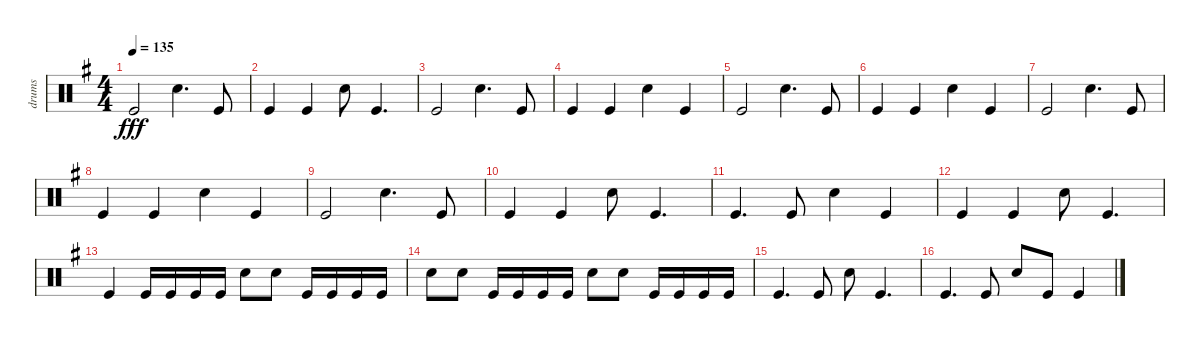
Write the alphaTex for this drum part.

\track ("drums" "drums") {instrument percussion}
\staff {score}
\articulation defaults
\ts (4 4)
\tempo 135
\clef neutral
\ks eminor "Kick (hit)".2{dy fff} "Electric Snare (hit)".4{d} "Kick (hit)".8
|
"Kick (hit)".4 "Kick (hit)".4 "Electric Snare (hit)".8 "Kick (hit)".4{d} |
"Kick (hit)".2 "Electric Snare (hit)".4{d} "Kick (hit)".8 |
"Kick (hit)".4 "Kick (hit)".4 "Electric Snare (hit)".4 "Kick (hit)".4 |
"Kick (hit)".2 "Electric Snare (hit)".4{d} "Kick (hit)".8 |
"Kick (hit)".4 "Kick (hit)".4 "Electric Snare (hit)".4 "Kick (hit)".4 |
"Kick (hit)".2 "Electric Snare (hit)".4{d} "Kick (hit)".8 |
"Kick (hit)".4 "Kick (hit)".4 "Electric Snare (hit)".4 "Kick (hit)".4 |
"Kick (hit)".2 "Electric Snare (hit)".4{d} "Kick (hit)".8 |
"Kick (hit)".4 "Kick (hit)".4 "Electric Snare (hit)".8 "Kick (hit)".4{d} |
"Kick (hit)".4{d} "Kick (hit)".8 "Electric Snare (hit)".4 "Kick (hit)".4 |
"Kick (hit)".4 "Kick (hit)".4 "Electric Snare (hit)".8 "Kick (hit)".4{d} |
"Kick (hit)".4 "Kick (hit)".16 "Kick (hit)".16 "Kick (hit)".16 "Kick (hit)".16 "Electric Snare (hit)".8 "Electric Snare (hit)".8 "Kick (hit)".16 "Kick (hit)".16 "Kick (hit)".16 "Kick (hit)".16 |
"Electric Snare (hit)".8 "Electric Snare (hit)".8 "Kick (hit)".16 "Kick (hit)".16 "Kick (hit)".16 "Kick (hit)".16 "Electric Snare (hit)".8 "Electric Snare (hit)".8 "Kick (hit)".16 "Kick (hit)".16 "Kick (hit)".16 "Kick (hit)".16 |
"Kick (hit)".4{d} "Kick (hit)".8 "Electric Snare (hit)".8 "Kick (hit)".4{d} |
"Kick (hit)".4{d} "Kick (hit)".8 "Electric Snare (hit)".8 "Kick (hit)".8 "Kick (hit)".4
